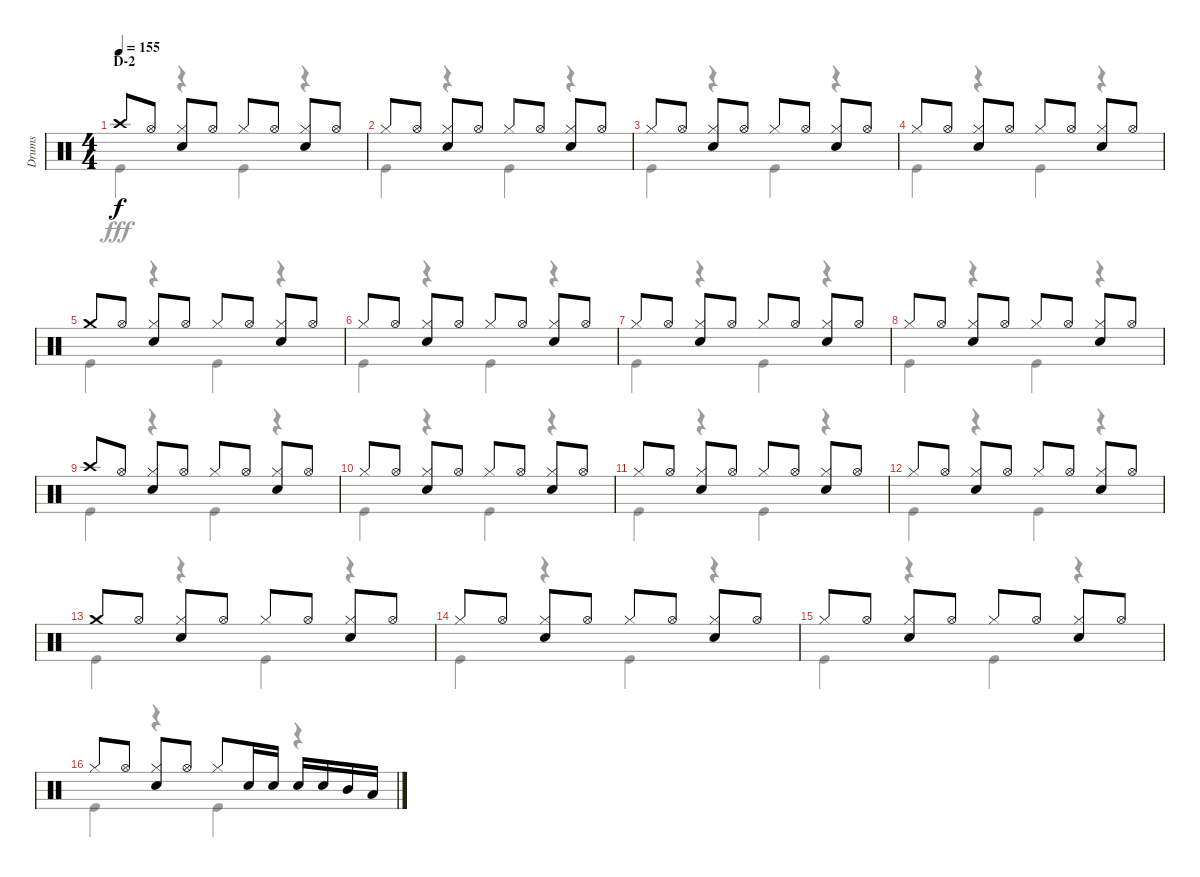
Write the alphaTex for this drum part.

\track ("Drums" "Drums") {instrument percussion}
\staff {score}
\articulation defaults
\voice
\ts (4 4)
\section ("" "D-2")
\tempo 155
\clef neutral
\ks c "Crash high (hit)".8{dy f} "Hi-Hat (open)".8
("Hi-Hat (closed)" "Snare (hit) 2").8 "Hi-Hat (open)".8 "Hi-Hat (closed)".8 "Hi-Hat (open)".8 ("Hi-Hat (closed)" "Snare (hit) 2").8 "Hi-Hat (open)".8 |
"Hi-Hat (closed)".8 "Hi-Hat (open)".8 ("Hi-Hat (closed)" "Snare (hit) 2").8 "Hi-Hat (open)".8 "Hi-Hat (closed)".8 "Hi-Hat (open)".8 ("Hi-Hat (closed)" "Snare (hit) 2").8 "Hi-Hat (open)".8 |
"Hi-Hat (closed)".8 "Hi-Hat (open)".8 ("Hi-Hat (closed)" "Snare (hit) 2").8 "Hi-Hat (open)".8 "Hi-Hat (closed)".8 "Hi-Hat (open)".8 ("Hi-Hat (closed)" "Snare (hit) 2").8 "Hi-Hat (open)".8 |
"Hi-Hat (closed)".8 "Hi-Hat (open)".8 ("Hi-Hat (closed)" "Snare (hit) 2").8 "Hi-Hat (open)".8 "Hi-Hat (closed)".8 "Hi-Hat (open)".8 ("Hi-Hat (closed)" "Snare (hit) 2").8 "Hi-Hat (open)".8 |
"Crash medium (hit)".8 "Hi-Hat (open)".8 ("Hi-Hat (closed)" "Snare (hit) 2").8 "Hi-Hat (open)".8 "Hi-Hat (closed)".8 "Hi-Hat (open)".8 ("Hi-Hat (closed)" "Snare (hit) 2").8 "Hi-Hat (open)".8 |
"Hi-Hat (closed)".8 "Hi-Hat (open)".8 ("Hi-Hat (closed)" "Snare (hit) 2").8 "Hi-Hat (open)".8 "Hi-Hat (closed)".8 "Hi-Hat (open)".8 ("Hi-Hat (closed)" "Snare (hit) 2").8 "Hi-Hat (open)".8 |
"Hi-Hat (closed)".8 "Hi-Hat (open)".8 ("Hi-Hat (closed)" "Snare (hit) 2").8 "Hi-Hat (open)".8 "Hi-Hat (closed)".8 "Hi-Hat (open)".8 ("Hi-Hat (closed)" "Snare (hit) 2").8 "Hi-Hat (open)".8 |
"Hi-Hat (closed)".8 "Hi-Hat (open)".8 ("Hi-Hat (closed)" "Snare (hit) 2").8 "Hi-Hat (open)".8 "Hi-Hat (closed)".8 "Hi-Hat (open)".8 ("Hi-Hat (closed)" "Snare (hit) 2").8 "Hi-Hat (open)".8 |
"Crash high (hit)".8 "Hi-Hat (open)".8 ("Hi-Hat (closed)" "Snare (hit) 2").8 "Hi-Hat (open)".8 "Hi-Hat (closed)".8 "Hi-Hat (open)".8 ("Hi-Hat (closed)" "Snare (hit) 2").8 "Hi-Hat (open)".8 |
"Hi-Hat (closed)".8 "Hi-Hat (open)".8 ("Hi-Hat (closed)" "Snare (hit) 2").8 "Hi-Hat (open)".8 "Hi-Hat (closed)".8 "Hi-Hat (open)".8 ("Hi-Hat (closed)" "Snare (hit) 2").8 "Hi-Hat (open)".8 |
"Hi-Hat (closed)".8 "Hi-Hat (open)".8 ("Hi-Hat (closed)" "Snare (hit) 2").8 "Hi-Hat (open)".8 "Hi-Hat (closed)".8 "Hi-Hat (open)".8 ("Hi-Hat (closed)" "Snare (hit) 2").8 "Hi-Hat (open)".8 |
"Hi-Hat (closed)".8 "Hi-Hat (open)".8 ("Hi-Hat (closed)" "Snare (hit) 2").8 "Hi-Hat (open)".8 "Hi-Hat (closed)".8 "Hi-Hat (open)".8 ("Hi-Hat (closed)" "Snare (hit) 2").8 "Hi-Hat (open)".8 |
"Crash medium (hit)".8 "Hi-Hat (open)".8 ("Hi-Hat (closed)" "Snare (hit) 2").8 "Hi-Hat (open)".8 "Hi-Hat (closed)".8 "Hi-Hat (open)".8 ("Hi-Hat (closed)" "Snare (hit) 2").8 "Hi-Hat (open)".8 |
"Hi-Hat (closed)".8 "Hi-Hat (open)".8 ("Hi-Hat (closed)" "Snare (hit) 2").8 "Hi-Hat (open)".8 "Hi-Hat (closed)".8 "Hi-Hat (open)".8 ("Hi-Hat (closed)" "Snare (hit) 2").8 "Hi-Hat (open)".8 |
"Hi-Hat (closed)".8 "Hi-Hat (open)".8 ("Hi-Hat (closed)" "Snare (hit) 2").8 "Hi-Hat (open)".8 "Hi-Hat (closed)".8 "Hi-Hat (open)".8 ("Hi-Hat (closed)" "Snare (hit) 2").8 "Hi-Hat (open)".8 |
"Hi-Hat (closed)".8 "Hi-Hat (open)".8 ("Hi-Hat (closed)" "Snare (hit) 2").8 "Hi-Hat (open)".8 "Hi-Hat (closed)".8 "Snare (hit) 2".16 "Snare (hit) 2".16 "Snare (hit) 2".16 "Snare (hit) 2".16 "Mid Tom (hit)".16 "Low Tom (hit)".16
\voice
\clef neutral
\ottava regular
\simile none
\ks c "Kick (hit)".4{dy fff}
r.4 "Kick (hit)".4 r.4 |
"Kick (hit)".4 r.4 "Kick (hit)".4 r.4 |
"Kick (hit)".4 r.4 "Kick (hit)".4 r.4 |
"Kick (hit)".4 r.4 "Kick (hit)".4 r.4 |
"Kick (hit)".4 r.4 "Kick (hit)".4 r.4 |
"Kick (hit)".4 r.4 "Kick (hit)".4 r.4 |
"Kick (hit)".4 r.4 "Kick (hit)".4 r.4 |
"Kick (hit)".4 r.4 "Kick (hit)".4 r.4 |
"Kick (hit)".4 r.4 "Kick (hit)".4 r.4 |
"Kick (hit)".4 r.4 "Kick (hit)".4 r.4 |
"Kick (hit)".4 r.4 "Kick (hit)".4 r.4 |
"Kick (hit)".4 r.4 "Kick (hit)".4 r.4 |
"Kick (hit)".4 r.4 "Kick (hit)".4 r.4 |
"Kick (hit)".4 r.4 "Kick (hit)".4 r.4 |
"Kick (hit)".4 r.4 "Kick (hit)".4 r.4 |
"Kick (hit)".4 r.4 "Kick (hit)".4 r.4
